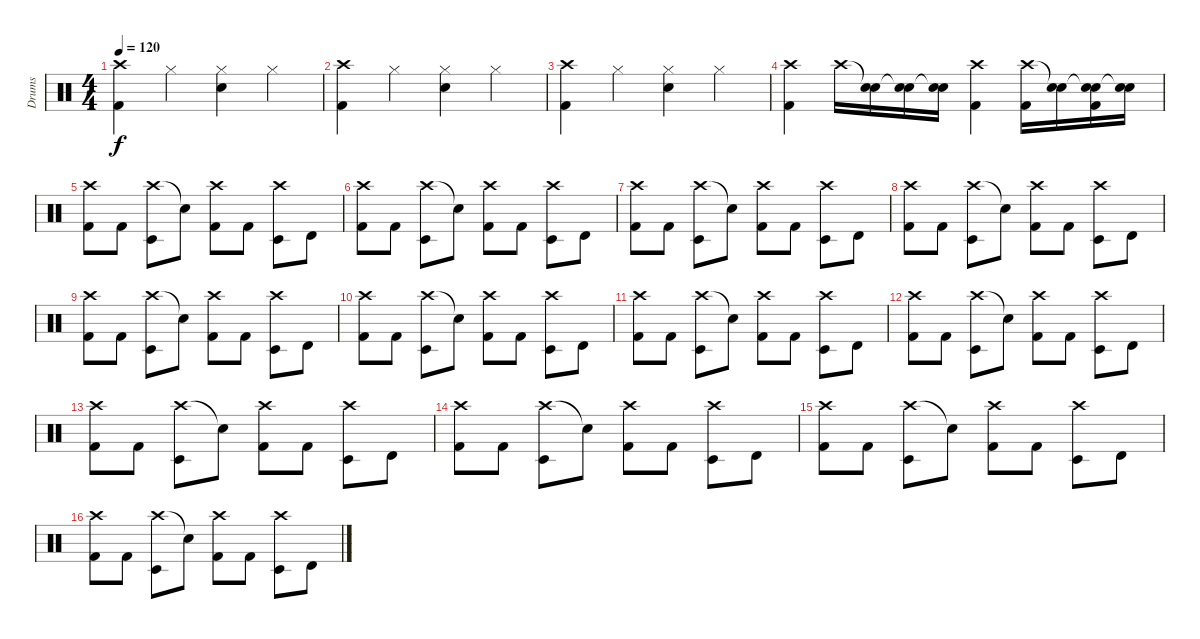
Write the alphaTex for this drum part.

\track ("Drums" "Drums") {instrument percussion}
\staff {score}
\articulation defaults
\ts (4 4)
\tempo 120
\clef neutral
\ks c
("Crash high (hit)" "Kick (hit) 2").4{dy f} "Hi-Hat (closed)".4 ("Hi-Hat (closed)" "Electric Snare (hit)").4 "Hi-Hat (closed)".4 |
("Crash high (hit)" "Kick (hit) 2").4 "Hi-Hat (closed)".4 ("Hi-Hat (closed)" "Electric Snare (hit)").4 "Hi-Hat (closed)".4 |
("Crash high (hit)" "Kick (hit) 2").4 "Hi-Hat (closed)".4 ("Hi-Hat (closed)" "Electric Snare (hit)").4 "Hi-Hat (closed)".4 |
("Crash high (hit)" "Kick (hit) 2").4 "Crash high (hit)".16 ("Snare (hit)"{t} "Electric Snare (hit)").16 ("Snare (hit)"{t} "Electric Snare (hit)").16 ("Snare (hit)"{t} "Electric Snare (hit)").16 ("Crash high (hit)" "Kick (hit) 2").4 ("Crash high (hit)" "Kick (hit) 2").16 ("Snare (hit)"{t} "Electric Snare (hit)").16 ("Snare (hit)"{t} "Electric Snare (hit)" "Kick (hit) 2").16 ("Snare (hit)"{t} "Electric Snare (hit)").16 |
("Crash high (hit)" "Kick (hit) 2").8 "Kick (hit) 2".8 ("Crash high (hit)" "Timbale low (hit)").8 "Snare (hit)"{t}.8 ("Crash high (hit)" "Kick (hit) 2").8 "Kick (hit) 2".8 ("Crash high (hit)" "Timbale low (hit)").8 "Timbale high (hit)".8 |
("Crash high (hit)" "Kick (hit) 2").8 "Kick (hit) 2".8 ("Crash high (hit)" "Timbale low (hit)").8 "Snare (hit)"{t}.8 ("Crash high (hit)" "Kick (hit) 2").8 "Kick (hit) 2".8 ("Crash high (hit)" "Timbale low (hit)").8 "Timbale high (hit)".8 |
("Crash high (hit)" "Kick (hit) 2").8 "Kick (hit) 2".8 ("Crash high (hit)" "Timbale low (hit)").8 "Snare (hit)"{t}.8 ("Crash high (hit)" "Kick (hit) 2").8 "Kick (hit) 2".8 ("Crash high (hit)" "Timbale low (hit)").8 "Timbale high (hit)".8 |
("Crash high (hit)" "Kick (hit) 2").8 "Kick (hit) 2".8 ("Crash high (hit)" "Timbale low (hit)").8 "Snare (hit)"{t}.8 ("Crash high (hit)" "Kick (hit) 2").8 "Kick (hit) 2".8 ("Crash high (hit)" "Timbale low (hit)").8 "Timbale high (hit)".8 |
("Crash high (hit)" "Kick (hit) 2").8 "Kick (hit) 2".8 ("Crash high (hit)" "Timbale low (hit)").8 "Snare (hit)"{t}.8 ("Crash high (hit)" "Kick (hit) 2").8 "Kick (hit) 2".8 ("Crash high (hit)" "Timbale low (hit)").8 "Timbale high (hit)".8 |
("Crash high (hit)" "Kick (hit) 2").8 "Kick (hit) 2".8 ("Crash high (hit)" "Timbale low (hit)").8 "Snare (hit)"{t}.8 ("Crash high (hit)" "Kick (hit) 2").8 "Kick (hit) 2".8 ("Crash high (hit)" "Timbale low (hit)").8 "Timbale high (hit)".8 |
("Crash high (hit)" "Kick (hit) 2").8 "Kick (hit) 2".8 ("Crash high (hit)" "Timbale low (hit)").8 "Snare (hit)"{t}.8 ("Crash high (hit)" "Kick (hit) 2").8 "Kick (hit) 2".8 ("Crash high (hit)" "Timbale low (hit)").8 "Timbale high (hit)".8 |
("Crash high (hit)" "Kick (hit) 2").8 "Kick (hit) 2".8 ("Crash high (hit)" "Timbale low (hit)").8 "Snare (hit)"{t}.8 ("Crash high (hit)" "Kick (hit) 2").8 "Kick (hit) 2".8 ("Crash high (hit)" "Timbale low (hit)").8 "Timbale high (hit)".8 |
("Crash high (hit)" "Kick (hit) 2").8 "Kick (hit) 2".8 ("Crash high (hit)" "Timbale low (hit)").8 "Snare (hit)"{t}.8 ("Crash high (hit)" "Kick (hit) 2").8 "Kick (hit) 2".8 ("Crash high (hit)" "Timbale low (hit)").8 "Timbale high (hit)".8 |
("Crash high (hit)" "Kick (hit) 2").8 "Kick (hit) 2".8 ("Crash high (hit)" "Timbale low (hit)").8 "Snare (hit)"{t}.8 ("Crash high (hit)" "Kick (hit) 2").8 "Kick (hit) 2".8 ("Crash high (hit)" "Timbale low (hit)").8 "Timbale high (hit)".8 |
("Crash high (hit)" "Kick (hit) 2").8 "Kick (hit) 2".8 ("Crash high (hit)" "Timbale low (hit)").8 "Snare (hit)"{t}.8 ("Crash high (hit)" "Kick (hit) 2").8 "Kick (hit) 2".8 ("Crash high (hit)" "Timbale low (hit)").8 "Timbale high (hit)".8 |
("Crash high (hit)" "Kick (hit) 2").8 "Kick (hit) 2".8 ("Crash high (hit)" "Timbale low (hit)").8 "Snare (hit)"{t}.8 ("Crash high (hit)" "Kick (hit) 2").8 "Kick (hit) 2".8 ("Crash high (hit)" "Timbale low (hit)").8 "Timbale high (hit)".8
